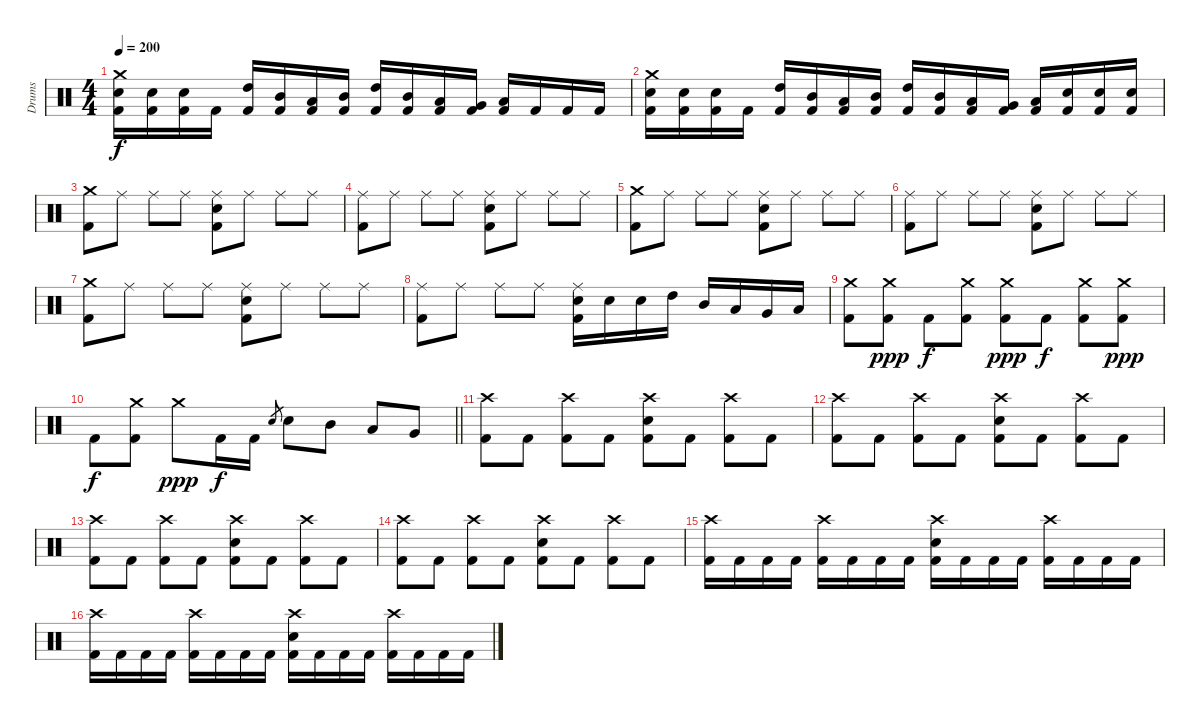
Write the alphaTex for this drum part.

\track ("Drums" "Drums") {instrument percussion}
\staff {score}
\articulation defaults
\ts (4 4)
\tempo 200
\clef neutral
\ks c
("Crash medium (hit)" "Electric Snare (hit)" "Kick (hit) 2").16{dy f} ("Electric Snare (hit)" "Kick (hit) 2").16 ("Electric Snare (hit)" "Kick (hit) 2").16 "Kick (hit) 2".16 ("High Tom (hit)" "Kick (hit) 2").16 ("Mid Tom (hit)" "Kick (hit) 2").16 ("Low Tom (hit)" "Kick (hit) 2").16 ("Mid Tom (hit)" "Kick (hit) 2").16 ("High Tom (hit)" "Kick (hit) 2").16 ("Mid Tom (hit)" "Kick (hit) 2").16 ("Low Tom (hit)" "Kick (hit) 2").16 ("Very Low Tom (hit)" "Kick (hit) 2").16 ("Low Floor Tom (hit)" "Kick (hit) 2").16 "Kick (hit) 2".16 "Kick (hit) 2".16 "Kick (hit) 2".16 |
("Crash medium (hit)" "Electric Snare (hit)" "Kick (hit) 2").16 ("Electric Snare (hit)" "Kick (hit) 2").16 ("Electric Snare (hit)" "Kick (hit) 2").16 "Kick (hit) 2".16 ("High Tom (hit)" "Kick (hit) 2").16 ("Mid Tom (hit)" "Kick (hit) 2").16 ("Low Tom (hit)" "Kick (hit) 2").16 ("Mid Tom (hit)" "Kick (hit) 2").16 ("High Tom (hit)" "Kick (hit) 2").16 ("Mid Tom (hit)" "Kick (hit) 2").16 ("Low Tom (hit)" "Kick (hit) 2").16 ("Very Low Tom (hit)" "Kick (hit) 2").16 ("Low Floor Tom (hit)" "Kick (hit) 2").16 ("Electric Snare (hit)" "Kick (hit) 2").16 ("Electric Snare (hit)" "Kick (hit) 2").16 ("Electric Snare (hit)" "Kick (hit) 2").16 |
("Crash medium (hit)" "Kick (hit) 2").8 "Ride (middle)".8 "Ride (middle)".8 "Ride (middle)".8 ("Ride (middle)" "Electric Snare (hit)" "Kick (hit) 2").8 "Ride (middle)".8 "Ride (middle)".8 "Ride (middle)".8 |
("Ride (middle)" "Kick (hit) 2").8 "Ride (middle)".8 "Ride (middle)".8 "Ride (middle)".8 ("Ride (middle)" "Electric Snare (hit)" "Kick (hit) 2").8 "Ride (middle)".8 "Ride (middle)".8 "Ride (middle)".8 |
("Crash medium (hit)" "Kick (hit) 2").8 "Ride (middle)".8 "Ride (middle)".8 "Ride (middle)".8 ("Ride (middle)" "Electric Snare (hit)" "Kick (hit) 2").8 "Ride (middle)".8 "Ride (middle)".8 "Ride (middle)".8 |
("Ride (middle)" "Kick (hit) 2").8 "Ride (middle)".8 "Ride (middle)".8 "Ride (middle)".8 ("Ride (middle)" "Electric Snare (hit)" "Kick (hit) 2").8 "Ride (middle)".8 "Ride (middle)".8 "Ride (middle)".8 |
("Crash medium (hit)" "Kick (hit) 2").8 "Ride (middle)".8 "Ride (middle)".8 "Ride (middle)".8 ("Ride (middle)" "Electric Snare (hit)" "Kick (hit) 2").8 "Ride (middle)".8 "Ride (middle)".8 "Ride (middle)".8 |
("Ride (middle)" "Kick (hit) 2").8 "Ride (middle)".8 "Ride (middle)".8 "Ride (middle)".8 ("Ride (middle)" "Electric Snare (hit)" "Kick (hit) 2").16 "Electric Snare (hit)".16 "Electric Snare (hit)".16 "High Tom (hit)".16 "Mid Tom (hit)".16 "Low Tom (hit)".16 "Very Low Tom (hit)".16 "Low Floor Tom (hit)".16 |
("Crash medium (hit)" "Kick (hit) 2").8 ("Crash medium (hit)" "Kick (hit) 2").8{dy ppp} "Kick (hit) 2".8{dy f} ("Crash medium (hit)" "Kick (hit) 2").8 ("Crash medium (hit)" "Kick (hit) 2").8{dy ppp} "Kick (hit) 2".8{dy f} ("Crash medium (hit)" "Kick (hit) 2").8 ("Crash medium (hit)" "Kick (hit) 2").8{dy ppp} |
\barLineRight lightlight "Kick (hit) 2".8{dy f}
("Crash medium (hit)" "Kick (hit) 2").8 "Crash medium (hit)".8{dy ppp} "Kick (hit) 2".16{dy f} "Kick (hit) 2".16 "Electric Snare (hit)".8{gr} "Electric Snare (hit)".8 "Mid Tom (hit)".8 "Low Tom (hit)".8 "Very Low Tom (hit)".8 |
\section ("" "")
("Crash high (hit)" "Kick (hit) 2").8 "Kick (hit) 2".8 ("Crash high (hit)" "Kick (hit) 2").8 "Kick (hit) 2".8 ("Crash high (hit)" "Electric Snare (hit)" "Kick (hit) 2").8 "Kick (hit) 2".8 ("Crash high (hit)" "Kick (hit) 2").8 "Kick (hit) 2".8 |
("Crash high (hit)" "Kick (hit) 2").8 "Kick (hit) 2".8 ("Crash high (hit)" "Kick (hit) 2").8 "Kick (hit) 2".8 ("Crash high (hit)" "Electric Snare (hit)" "Kick (hit) 2").8 "Kick (hit) 2".8 ("Crash high (hit)" "Kick (hit) 2").8 "Kick (hit) 2".8 |
("Crash high (hit)" "Kick (hit) 2").8 "Kick (hit) 2".8 ("Crash high (hit)" "Kick (hit) 2").8 "Kick (hit) 2".8 ("Crash high (hit)" "Electric Snare (hit)" "Kick (hit) 2").8 "Kick (hit) 2".8 ("Crash high (hit)" "Kick (hit) 2").8 "Kick (hit) 2".8 |
("Crash high (hit)" "Kick (hit) 2").8 "Kick (hit) 2".8 ("Crash high (hit)" "Kick (hit) 2").8 "Kick (hit) 2".8 ("Crash high (hit)" "Electric Snare (hit)" "Kick (hit) 2").8 "Kick (hit) 2".8 ("Crash high (hit)" "Kick (hit) 2").8 "Kick (hit) 2".8 |
("Crash high (hit)" "Kick (hit) 2").16 "Kick (hit) 2".16 "Kick (hit) 2".16 "Kick (hit) 2".16 ("Crash high (hit)" "Kick (hit) 2").16 "Kick (hit) 2".16 "Kick (hit) 2".16 "Kick (hit) 2".16 ("Crash high (hit)" "Electric Snare (hit)" "Kick (hit) 2").16 "Kick (hit) 2".16 "Kick (hit) 2".16 "Kick (hit) 2".16 ("Crash high (hit)" "Kick (hit) 2").16 "Kick (hit) 2".16 "Kick (hit) 2".16 "Kick (hit) 2".16 |
("Crash high (hit)" "Kick (hit) 2").16 "Kick (hit) 2".16 "Kick (hit) 2".16 "Kick (hit) 2".16 ("Crash high (hit)" "Kick (hit) 2").16 "Kick (hit) 2".16 "Kick (hit) 2".16 "Kick (hit) 2".16 ("Crash high (hit)" "Electric Snare (hit)" "Kick (hit) 2").16 "Kick (hit) 2".16 "Kick (hit) 2".16 "Kick (hit) 2".16 ("Crash high (hit)" "Kick (hit) 2").16 "Kick (hit) 2".16 "Kick (hit) 2".16 "Kick (hit) 2".16
